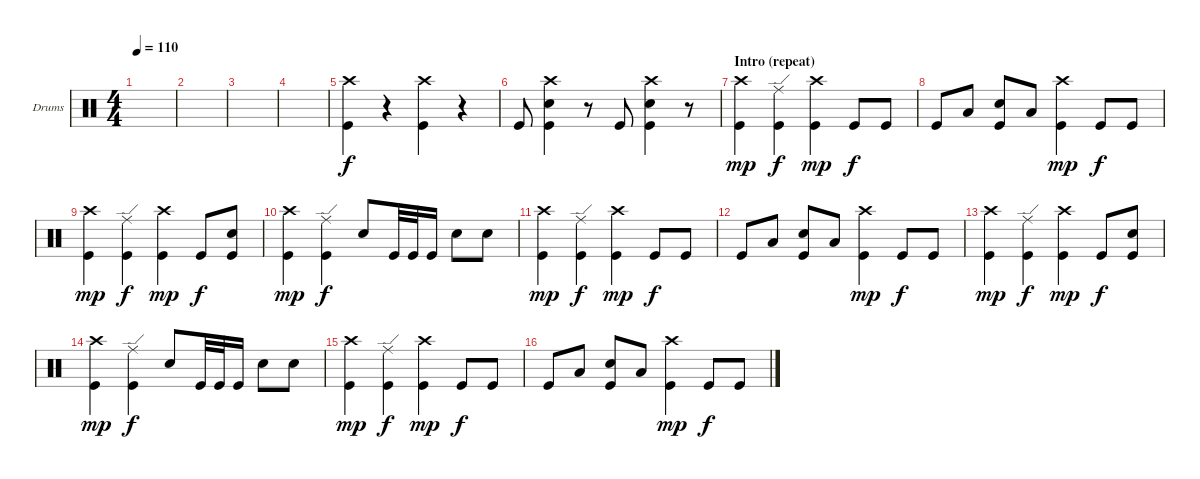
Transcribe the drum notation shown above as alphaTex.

\bracketExtendMode groupsimilarinstruments
\firstSystemTrackNameOrientation horizontal
\otherSystemsTrackNameOrientation horizontal
\track ("Drumkit" "Drums") {instrument percussion}
\staff {score}
\articulation defaults
\ts (4 4)
\tempo 110
\clef neutral
\ks c
|
|
|
|
("Crash high (hit)" "Kick (hit)").4 r.4 ("Crash high (hit)" "Kick (hit)").4 r.4 |
"Kick (hit)".8 ("Crash high (hit)" "Kick (hit)" "Snare (hit) 2").4 r.8 "Kick (hit)".8 ("Crash high (hit)" "Kick (hit)" "Snare (hit) 2").4 r.8 |
\section ("" "Intro (repeat)")
("Crash high (hit)" "Kick (hit)").4{dy mp} ("Ride (edge)" "Kick (hit)").4{dy f} ("Crash high (hit)" "Kick (hit)").4{dy mp} "Kick (hit)".8{dy f} "Kick (hit)".8 |
"Kick (hit)".8 "Low Tom (hit)".8 ("Snare (hit) 2" "Kick (hit)").8 "Low Tom (hit)".8 ("Crash high (hit)" "Kick (hit)").4{dy mp} "Kick (hit)".8{dy f} "Kick (hit)".8 |
("Crash high (hit)" "Kick (hit)").4{dy mp} ("Ride (edge)" "Kick (hit)").4{dy f} ("Crash high (hit)" "Kick (hit)").4{dy mp} "Kick (hit)".8{dy f} ("Snare (hit) 2" "Kick (hit)").8 |
("Crash high (hit)" "Kick (hit)").4{dy mp} ("Ride (edge)" "Kick (hit)").4{dy f} "Snare (hit) 2".8 "Kick (hit)".32 "Kick (hit)".32 "Kick (hit)".16 "Snare (hit) 2".8 "Snare (hit) 2".8 |
("Crash high (hit)" "Kick (hit)").4{dy mp} ("Ride (edge)" "Kick (hit)").4{dy f} ("Crash high (hit)" "Kick (hit)").4{dy mp} "Kick (hit)".8{dy f} "Kick (hit)".8 |
"Kick (hit)".8 "Low Tom (hit)".8 ("Snare (hit) 2" "Kick (hit)").8 "Low Tom (hit)".8 ("Crash high (hit)" "Kick (hit)").4{dy mp} "Kick (hit)".8{dy f} "Kick (hit)".8 |
("Crash high (hit)" "Kick (hit)").4{dy mp} ("Ride (edge)" "Kick (hit)").4{dy f} ("Crash high (hit)" "Kick (hit)").4{dy mp} "Kick (hit)".8{dy f} ("Snare (hit) 2" "Kick (hit)").8 |
("Crash high (hit)" "Kick (hit)").4{dy mp} ("Ride (edge)" "Kick (hit)").4{dy f} "Snare (hit) 2".8 "Kick (hit)".32 "Kick (hit)".32 "Kick (hit)".16 "Snare (hit) 2".8 "Snare (hit) 2".8 |
("Crash high (hit)" "Kick (hit)").4{dy mp} ("Ride (edge)" "Kick (hit)").4{dy f} ("Crash high (hit)" "Kick (hit)").4{dy mp} "Kick (hit)".8{dy f} "Kick (hit)".8 |
"Kick (hit)".8 "Low Tom (hit)".8 ("Snare (hit) 2" "Kick (hit)").8 "Low Tom (hit)".8 ("Crash high (hit)" "Kick (hit)").4{dy mp} "Kick (hit)".8{dy f} "Kick (hit)".8
